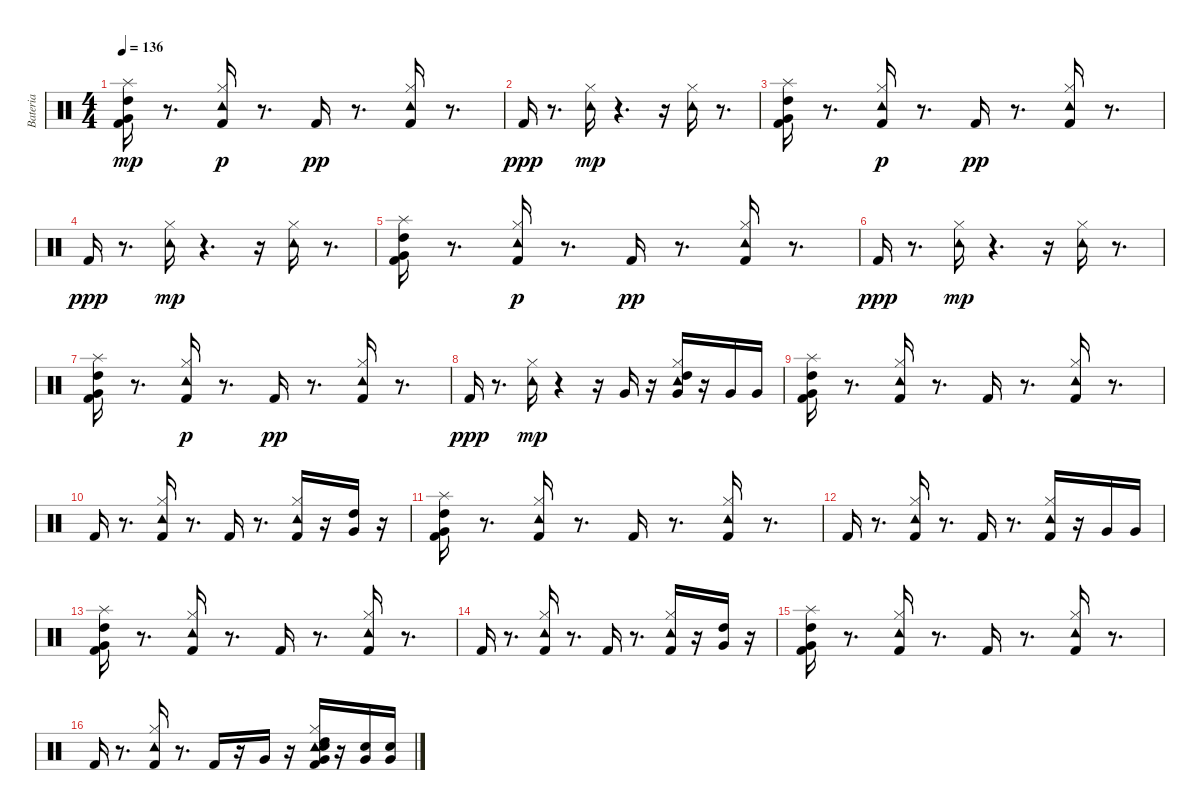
\track ("Bateria" "Bateria") {instrument percussion}
\staff {score}
\articulation defaults
\ts (4 4)
\tempo 136
\clef neutral
\ks c
("Splash (hit)" "Very Low Tom (hit)" "High Tom (hit)" "Kick (hit) 2").16{dy mp} r.8{d} ("Hi-Hat (closed)" "Tambourine (hit)" "Kick (hit) 2").16{dy p} r.8{d} "Kick (hit) 2".16{dy pp} r.8{d} ("Hi-Hat (closed)" "Tambourine (hit)" "Kick (hit) 2").16 r.8{d} |
"Kick (hit) 2".16{dy ppp} r.8{d} ("Hi-Hat (closed)" "Tambourine (hit)").16{dy mp} r.4{d} r.16 ("Hi-Hat (closed)" "Tambourine (hit)").16 r.8{d} |
("Kick (hit) 2" "Very Low Tom (hit)" "High Tom (hit)" "Splash (hit)").16 r.8{d} ("Hi-Hat (closed)" "Tambourine (hit)" "Kick (hit) 2").16{dy p} r.8{d} "Kick (hit) 2".16{dy pp} r.8{d} ("Hi-Hat (closed)" "Tambourine (hit)" "Kick (hit) 2").16 r.8{d} |
"Kick (hit) 2".16{dy ppp} r.8{d} ("Hi-Hat (closed)" "Tambourine (hit)").16{dy mp} r.4{d} r.16 ("Hi-Hat (closed)" "Tambourine (hit)").16 r.8{d} |
("Splash (hit)" "Very Low Tom (hit)" "High Tom (hit)" "Kick (hit) 2").16 r.8{d} ("Hi-Hat (closed)" "Tambourine (hit)" "Kick (hit) 2").16{dy p} r.8{d} "Kick (hit) 2".16{dy pp} r.8{d} ("Hi-Hat (closed)" "Tambourine (hit)" "Kick (hit) 2").16 r.8{d} |
"Kick (hit) 2".16{dy ppp} r.8{d} ("Hi-Hat (closed)" "Tambourine (hit)").16{dy mp} r.4{d} r.16 ("Hi-Hat (closed)" "Tambourine (hit)").16 r.8{d} |
("Kick (hit) 2" "Very Low Tom (hit)" "High Tom (hit)" "Splash (hit)").16 r.8{d} ("Hi-Hat (closed)" "Tambourine (hit)" "Kick (hit) 2").16{dy p} r.8{d} "Kick (hit) 2".16{dy pp} r.8{d} ("Hi-Hat (closed)" "Tambourine (hit)" "Kick (hit) 2").16 r.8{d} |
"Kick (hit) 2".16{dy ppp} r.8{d} ("Hi-Hat (closed)" "Tambourine (hit)").16{dy mp} r.4 r.16 "Very Low Tom (hit)".16 r.16 ("Hi-Hat (closed)" "Tambourine (hit)" "Very Low Tom (hit)" "High Tom (hit)").16 r.16 "Very Low Tom (hit)".16 "Very Low Tom (hit)".16 |
("Splash (hit)" "Very Low Tom (hit)" "High Tom (hit)" "Kick (hit) 2").16 r.8{d} ("Hi-Hat (closed)" "Tambourine (hit)" "Kick (hit) 2").16 r.8{d} "Kick (hit) 2".16 r.8{d} ("Hi-Hat (closed)" "Tambourine (hit)" "Kick (hit) 2").16 r.8{d} |
"Kick (hit) 2".16 r.8{d} ("Hi-Hat (closed)" "Tambourine (hit)" "Kick (hit) 2").16 r.8{d} "Kick (hit) 2".16 r.8{d} ("Hi-Hat (closed)" "Tambourine (hit)" "Kick (hit) 2").16 r.16 ("High Tom (hit)" "Very Low Tom (hit)").16 r.16 |
("Kick (hit) 2" "Very Low Tom (hit)" "High Tom (hit)" "Splash (hit)").16 r.8{d} ("Hi-Hat (closed)" "Tambourine (hit)" "Kick (hit) 2").16 r.8{d} "Kick (hit) 2".16 r.8{d} ("Hi-Hat (closed)" "Tambourine (hit)" "Kick (hit) 2").16 r.8{d} |
"Kick (hit) 2".16 r.8{d} ("Hi-Hat (closed)" "Tambourine (hit)" "Kick (hit) 2").16 r.8{d} "Kick (hit) 2".16 r.8{d} ("Hi-Hat (closed)" "Tambourine (hit)" "Kick (hit) 2").16 r.16 "Very Low Tom (hit)".16 "Very Low Tom (hit)".16 |
("Splash (hit)" "Very Low Tom (hit)" "High Tom (hit)" "Kick (hit) 2").16 r.8{d} ("Hi-Hat (closed)" "Tambourine (hit)" "Kick (hit) 2").16 r.8{d} "Kick (hit) 2".16 r.8{d} ("Hi-Hat (closed)" "Tambourine (hit)" "Kick (hit) 2").16 r.8{d} |
"Kick (hit) 2".16 r.8{d} ("Hi-Hat (closed)" "Tambourine (hit)" "Kick (hit) 2").16 r.8{d} "Kick (hit) 2".16 r.8{d} ("Hi-Hat (closed)" "Tambourine (hit)" "Kick (hit) 2").16 r.16 ("High Tom (hit)" "Very Low Tom (hit)").16 r.16 |
("Kick (hit) 2" "Very Low Tom (hit)" "High Tom (hit)" "Splash (hit)").16 r.8{d} ("Hi-Hat (closed)" "Tambourine (hit)" "Kick (hit) 2").16 r.8{d} "Kick (hit) 2".16 r.8{d} ("Hi-Hat (closed)" "Tambourine (hit)" "Kick (hit) 2").16 r.8{d} |
"Kick (hit) 2".16 r.8{d} ("Hi-Hat (closed)" "Tambourine (hit)" "Kick (hit) 2").16 r.8{d} "Kick (hit) 2".16 r.16 "Very Low Tom (hit)".16 r.16 ("Hi-Hat (closed)" "Tambourine (hit)" "Kick (hit) 2" "Very Low Tom (hit)" "High Tom (hit)" "Snare (hit) 2").16 r.16 ("Very Low Tom (hit)" "Snare (hit) 2").16 ("Very Low Tom (hit)" "Snare (hit) 2").16
